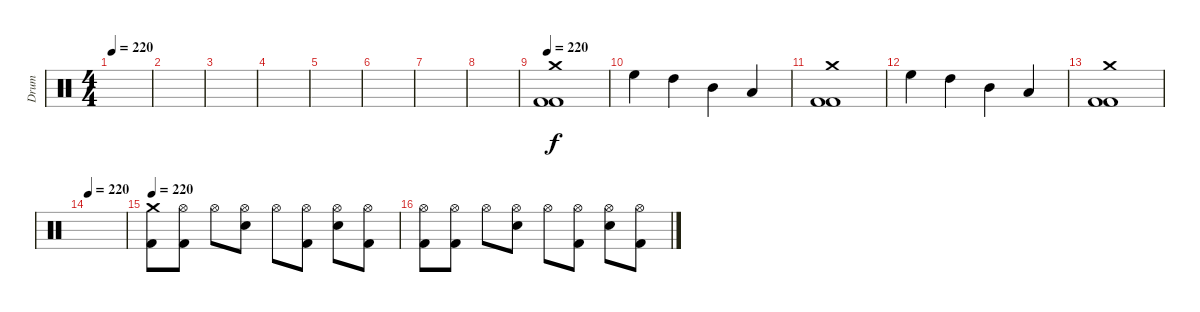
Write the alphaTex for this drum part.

\track ("Drum" "Drum") {instrument percussion}
\staff {score}
\articulation defaults
\ts (4 4)
\tempo 220
\clef neutral
\ks c
|
|
|
|
|
|
|
|
\tempo 220
("Crash medium (hit)" "Kick (hit) 2" "Kick (hit) 2").1 |
"High Floor Tom (hit)".4 "High Tom (hit)".4 "Mid Tom (hit)".4 "Low Tom (hit)".4 |
("Crash medium (hit)" "Kick (hit) 2" "Kick (hit) 2").1 |
"High Floor Tom (hit)".4 "High Tom (hit)".4 "Mid Tom (hit)".4 "Low Tom (hit)".4 |
("Crash medium (hit)" "Kick (hit) 2" "Kick (hit) 2").1 |
\tempo 220
|
\tempo 220
("Crash medium (hit)" "Kick (hit) 2").8 ("Hi-Hat (open)" "Kick (hit) 2").8 "Hi-Hat (open)".8 ("Hi-Hat (open)" "Snare (hit) 2").8 "Hi-Hat (open)".8 ("Hi-Hat (open)" "Kick (hit) 2").8 ("Hi-Hat (open)" "Snare (hit) 2").8 ("Hi-Hat (open)" "Kick (hit) 2").8 |
("Hi-Hat (open)" "Kick (hit) 2").8 ("Hi-Hat (open)" "Kick (hit) 2").8 "Hi-Hat (open)".8 ("Hi-Hat (open)" "Snare (hit) 2").8 "Hi-Hat (open)".8 ("Hi-Hat (open)" "Kick (hit) 2").8 ("Hi-Hat (open)" "Snare (hit) 2").8 ("Hi-Hat (open)" "Kick (hit) 2").8
